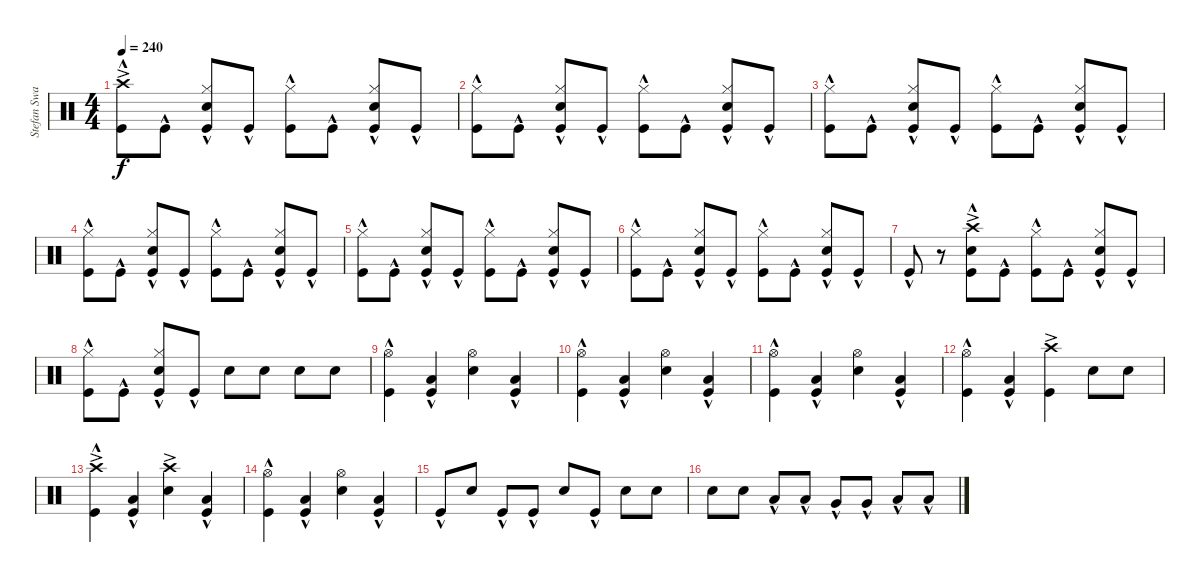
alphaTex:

\track ("Stefan Swarztmann" "Stefan Swa") {instrument percussion}
\staff {score}
\articulation defaults
\ts (4 4)
\tempo 240
\clef neutral
\ks c
("Crash high (hit)"{ac} "Kick (hit)"{hac}).8{dy f} "Kick (hit)"{hac}.8 ("Hi-Hat (closed)" "Snare (hit) 2" "Kick (hit)"{hac}).8 "Kick (hit)"{hac}.8 ("Hi-Hat (closed)" "Kick (hit)"{hac}).8 "Kick (hit)"{hac}.8 ("Hi-Hat (closed)" "Snare (hit) 2" "Kick (hit)"{hac}).8 "Kick (hit)"{hac}.8 |
("Hi-Hat (closed)" "Kick (hit)"{hac}).8 "Kick (hit)"{hac}.8 ("Hi-Hat (closed)" "Snare (hit) 2" "Kick (hit)"{hac}).8 "Kick (hit)"{hac}.8 ("Hi-Hat (closed)" "Kick (hit)"{hac}).8 "Kick (hit)"{hac}.8 ("Hi-Hat (closed)" "Snare (hit) 2" "Kick (hit)"{hac}).8 "Kick (hit)"{hac}.8 |
("Hi-Hat (closed)" "Kick (hit)"{hac}).8 "Kick (hit)"{hac}.8 ("Hi-Hat (closed)" "Snare (hit) 2" "Kick (hit)"{hac}).8 "Kick (hit)"{hac}.8 ("Hi-Hat (closed)" "Kick (hit)"{hac}).8 "Kick (hit)"{hac}.8 ("Hi-Hat (closed)" "Snare (hit) 2" "Kick (hit)"{hac}).8 "Kick (hit)"{hac}.8 |
("Hi-Hat (closed)" "Kick (hit)"{hac}).8 "Kick (hit)"{hac}.8 ("Hi-Hat (closed)" "Snare (hit) 2" "Kick (hit)"{hac}).8 "Kick (hit)"{hac}.8 ("Hi-Hat (closed)" "Kick (hit)"{hac}).8 "Kick (hit)"{hac}.8 ("Hi-Hat (closed)" "Snare (hit) 2" "Kick (hit)"{hac}).8 "Kick (hit)"{hac}.8 |
("Hi-Hat (closed)" "Kick (hit)"{hac}).8 "Kick (hit)"{hac}.8 ("Hi-Hat (closed)" "Snare (hit) 2" "Kick (hit)"{hac}).8 "Kick (hit)"{hac}.8 ("Hi-Hat (closed)" "Kick (hit)"{hac}).8 "Kick (hit)"{hac}.8 ("Hi-Hat (closed)" "Snare (hit) 2" "Kick (hit)"{hac}).8 "Kick (hit)"{hac}.8 |
("Hi-Hat (closed)" "Kick (hit)"{hac}).8 "Kick (hit)"{hac}.8 ("Hi-Hat (closed)" "Snare (hit) 2" "Kick (hit)"{hac}).8 "Kick (hit)"{hac}.8 ("Hi-Hat (closed)" "Kick (hit)"{hac}).8 "Kick (hit)"{hac}.8 ("Hi-Hat (closed)" "Snare (hit) 2" "Kick (hit)"{hac}).8 "Kick (hit)"{hac}.8 |
"Kick (hit)"{hac}.8 r.8 ("Crash high (hit)"{ac} "Snare (hit) 2" "Kick (hit)"{hac}).8 "Kick (hit)"{hac}.8 ("Hi-Hat (closed)" "Kick (hit)"{hac}).8 "Kick (hit)"{hac}.8 ("Hi-Hat (closed)" "Snare (hit) 2" "Kick (hit)"{hac}).8 "Kick (hit)"{hac}.8 |
("Hi-Hat (closed)" "Kick (hit)"{hac}).8 "Kick (hit)"{hac}.8 ("Hi-Hat (closed)" "Snare (hit) 2" "Kick (hit)"{hac}).8 "Kick (hit)"{hac}.8 "Snare (hit) 2".8 "Snare (hit) 2".8 "Snare (hit) 2".8 "Snare (hit) 2".8 |
("Hi-Hat (open)" "Kick (hit)"{hac}).4 ("Low Floor Tom (hit)"{hac} "Kick (hit)"{hac}).4 ("Hi-Hat (open)" "Snare (hit) 2").4 ("Low Floor Tom (hit)"{hac} "Kick (hit)"{hac}).4 |
("Hi-Hat (open)" "Kick (hit)"{hac}).4 ("Low Floor Tom (hit)"{hac} "Kick (hit)"{hac}).4 ("Hi-Hat (open)" "Snare (hit) 2").4 ("Low Floor Tom (hit)"{hac} "Kick (hit)"{hac}).4 |
("Hi-Hat (open)" "Kick (hit)"{hac}).4 ("Low Floor Tom (hit)"{hac} "Kick (hit)"{hac}).4 ("Hi-Hat (open)" "Snare (hit) 2").4 ("Low Floor Tom (hit)"{hac} "Kick (hit)"{hac}).4 |
("Hi-Hat (open)" "Kick (hit)"{hac}).4 ("Low Floor Tom (hit)"{hac} "Kick (hit)"{hac}).4 ("Crash high (hit)"{ac} "Kick (hit)").4 "Snare (hit) 2".8 "Snare (hit) 2".8 |
("Crash high (hit)"{ac} "Kick (hit)"{hac}).4 ("Low Floor Tom (hit)"{hac} "Kick (hit)"{hac}).4 ("Crash high (hit)"{ac} "Snare (hit) 2").4 ("Low Floor Tom (hit)"{hac} "Kick (hit)"{hac}).4 |
("Hi-Hat (open)" "Kick (hit)"{hac}).4 ("Low Floor Tom (hit)"{hac} "Kick (hit)"{hac}).4 ("Hi-Hat (open)" "Snare (hit) 2").4 ("Low Floor Tom (hit)"{hac} "Kick (hit)"{hac}).4 |
"Kick (hit)"{hac}.8 "Snare (hit) 2".8 "Kick (hit)"{hac}.8 "Kick (hit)"{hac}.8 "Snare (hit) 2".8 "Kick (hit)"{hac}.8 "Snare (hit) 2".8 "Snare (hit) 2".8 |
"Snare (hit) 2".8 "Snare (hit) 2".8 "Low Tom (hit)"{hac}.8 "Low Tom (hit)"{hac}.8 "Very Low Tom (hit)"{hac}.8 "Very Low Tom (hit)"{hac}.8 "Low Floor Tom (hit)"{hac}.8 "Low Floor Tom (hit)"{hac}.8
